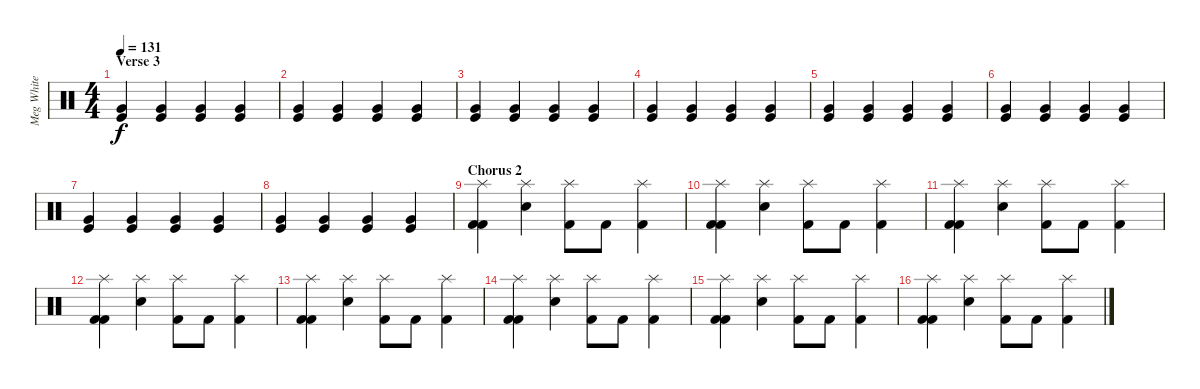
\track ("Meg White" "Meg White") {instrument percussion}
\staff {score}
\articulation defaults
\ts (4 4)
\section ("" "Verse 3")
\tempo 131
\clef neutral
\ks c
("Very Low Tom (hit)" "Kick (hit)").4{dy f} ("Very Low Tom (hit)" "Kick (hit)").4 ("Very Low Tom (hit)" "Kick (hit)").4 ("Very Low Tom (hit)" "Kick (hit)").4 |
("Very Low Tom (hit)" "Kick (hit)").4 ("Very Low Tom (hit)" "Kick (hit)").4 ("Very Low Tom (hit)" "Kick (hit)").4 ("Very Low Tom (hit)" "Kick (hit)").4 |
("Very Low Tom (hit)" "Kick (hit)").4 ("Very Low Tom (hit)" "Kick (hit)").4 ("Very Low Tom (hit)" "Kick (hit)").4 ("Very Low Tom (hit)" "Kick (hit)").4 |
("Very Low Tom (hit)" "Kick (hit)").4 ("Very Low Tom (hit)" "Kick (hit)").4 ("Very Low Tom (hit)" "Kick (hit)").4 ("Very Low Tom (hit)" "Kick (hit)").4 |
("Very Low Tom (hit)" "Kick (hit)").4 ("Very Low Tom (hit)" "Kick (hit)").4 ("Very Low Tom (hit)" "Kick (hit)").4 ("Very Low Tom (hit)" "Kick (hit)").4 |
("Very Low Tom (hit)" "Kick (hit)").4 ("Very Low Tom (hit)" "Kick (hit)").4 ("Very Low Tom (hit)" "Kick (hit)").4 ("Very Low Tom (hit)" "Kick (hit)").4 |
("Very Low Tom (hit)" "Kick (hit)").4 ("Very Low Tom (hit)" "Kick (hit)").4 ("Very Low Tom (hit)" "Kick (hit)").4 ("Very Low Tom (hit)" "Kick (hit)").4 |
("Very Low Tom (hit)" "Kick (hit)").4 ("Very Low Tom (hit)" "Kick (hit)").4 ("Very Low Tom (hit)" "Kick (hit)").4 ("Very Low Tom (hit)" "Kick (hit)").4 |
\section ("" "Chorus 2")
("Splash (hit)" "Kick (hit) 2" "Kick (hit) 2").4 ("Splash (hit)" "Snare (hit) 2").4 ("Splash (hit)" "Kick (hit) 2").8 "Kick (hit) 2".8 ("Splash (hit)" "Kick (hit) 2").4 |
("Splash (hit)" "Kick (hit) 2" "Kick (hit) 2").4 ("Splash (hit)" "Snare (hit) 2").4 ("Splash (hit)" "Kick (hit) 2").8 "Kick (hit) 2".8 ("Splash (hit)" "Kick (hit) 2").4 |
("Splash (hit)" "Kick (hit) 2" "Kick (hit) 2").4 ("Splash (hit)" "Snare (hit) 2").4 ("Splash (hit)" "Kick (hit) 2").8 "Kick (hit) 2".8 ("Splash (hit)" "Kick (hit) 2").4 |
("Splash (hit)" "Kick (hit) 2" "Kick (hit) 2").4 ("Splash (hit)" "Snare (hit) 2").4 ("Splash (hit)" "Kick (hit) 2").8 "Kick (hit) 2".8 ("Splash (hit)" "Kick (hit) 2").4 |
("Splash (hit)" "Kick (hit) 2" "Kick (hit) 2").4 ("Splash (hit)" "Snare (hit) 2").4 ("Splash (hit)" "Kick (hit) 2").8 "Kick (hit) 2".8 ("Splash (hit)" "Kick (hit) 2").4 |
("Splash (hit)" "Kick (hit) 2" "Kick (hit) 2").4 ("Splash (hit)" "Snare (hit) 2").4 ("Splash (hit)" "Kick (hit) 2").8 "Kick (hit) 2".8 ("Splash (hit)" "Kick (hit) 2").4 |
("Splash (hit)" "Kick (hit) 2" "Kick (hit) 2").4 ("Splash (hit)" "Snare (hit) 2").4 ("Splash (hit)" "Kick (hit) 2").8 "Kick (hit) 2".8 ("Splash (hit)" "Kick (hit) 2").4 |
("Splash (hit)" "Kick (hit) 2" "Kick (hit) 2").4 ("Splash (hit)" "Snare (hit) 2").4 ("Splash (hit)" "Kick (hit) 2").8 "Kick (hit) 2".8 ("Splash (hit)" "Kick (hit) 2").4
